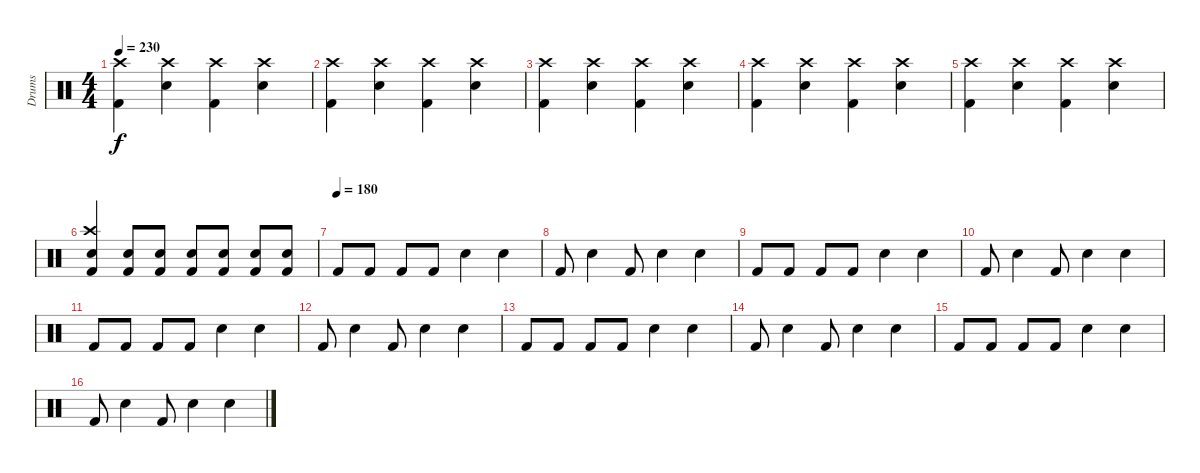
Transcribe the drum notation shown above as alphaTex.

\track ("Drums" "Drums") {instrument percussion}
\staff {score}
\articulation defaults
\ts (4 4)
\tempo 230
\clef neutral
\ks c
("Kick (hit) 2" "Crash high (hit)").4{dy f} ("Snare (hit) 2" "Crash high (hit)").4 ("Kick (hit) 2" "Crash high (hit)").4 ("Snare (hit) 2" "Crash high (hit)").4 |
("Kick (hit) 2" "Crash high (hit)").4 ("Snare (hit) 2" "Crash high (hit)").4 ("Kick (hit) 2" "Crash high (hit)").4 ("Snare (hit) 2" "Crash high (hit)").4 |
("Kick (hit) 2" "Crash high (hit)").4 ("Snare (hit) 2" "Crash high (hit)").4 ("Kick (hit) 2" "Crash high (hit)").4 ("Snare (hit) 2" "Crash high (hit)").4 |
("Kick (hit) 2" "Crash high (hit)").4 ("Snare (hit) 2" "Crash high (hit)").4 ("Kick (hit) 2" "Crash high (hit)").4 ("Snare (hit) 2" "Crash high (hit)").4 |
("Kick (hit) 2" "Crash high (hit)").4 ("Snare (hit) 2" "Crash high (hit)").4 ("Kick (hit) 2" "Crash high (hit)").4 ("Snare (hit) 2" "Crash high (hit)").4 |
("Snare (hit) 2" "Kick (hit) 2" "Crash high (hit)").4 ("Snare (hit) 2" "Kick (hit) 2").8 ("Snare (hit) 2" "Kick (hit) 2").8 ("Snare (hit) 2" "Kick (hit) 2").8 ("Snare (hit) 2" "Kick (hit) 2").8 ("Snare (hit) 2" "Kick (hit) 2").8 ("Snare (hit) 2" "Kick (hit) 2").8 |
\tempo (180)
"Kick (hit) 2".8 "Kick (hit) 2".8 "Kick (hit) 2".8 "Kick (hit) 2".8 "Snare (hit) 2".4 "Snare (hit) 2".4 |
"Kick (hit) 2".8 "Snare (hit) 2".4 "Kick (hit) 2".8 "Snare (hit) 2".4 "Snare (hit) 2".4 |
"Kick (hit) 2".8 "Kick (hit) 2".8 "Kick (hit) 2".8 "Kick (hit) 2".8 "Snare (hit) 2".4 "Snare (hit) 2".4 |
"Kick (hit) 2".8 "Snare (hit) 2".4 "Kick (hit) 2".8 "Snare (hit) 2".4 "Snare (hit) 2".4 |
"Kick (hit) 2".8 "Kick (hit) 2".8 "Kick (hit) 2".8 "Kick (hit) 2".8 "Snare (hit) 2".4 "Snare (hit) 2".4 |
"Kick (hit) 2".8 "Snare (hit) 2".4 "Kick (hit) 2".8 "Snare (hit) 2".4 "Snare (hit) 2".4 |
"Kick (hit) 2".8 "Kick (hit) 2".8 "Kick (hit) 2".8 "Kick (hit) 2".8 "Snare (hit) 2".4 "Snare (hit) 2".4 |
"Kick (hit) 2".8 "Snare (hit) 2".4 "Kick (hit) 2".8 "Snare (hit) 2".4 "Snare (hit) 2".4 |
"Kick (hit) 2".8 "Kick (hit) 2".8 "Kick (hit) 2".8 "Kick (hit) 2".8 "Snare (hit) 2".4 "Snare (hit) 2".4 |
"Kick (hit) 2".8 "Snare (hit) 2".4 "Kick (hit) 2".8 "Snare (hit) 2".4 "Snare (hit) 2".4
